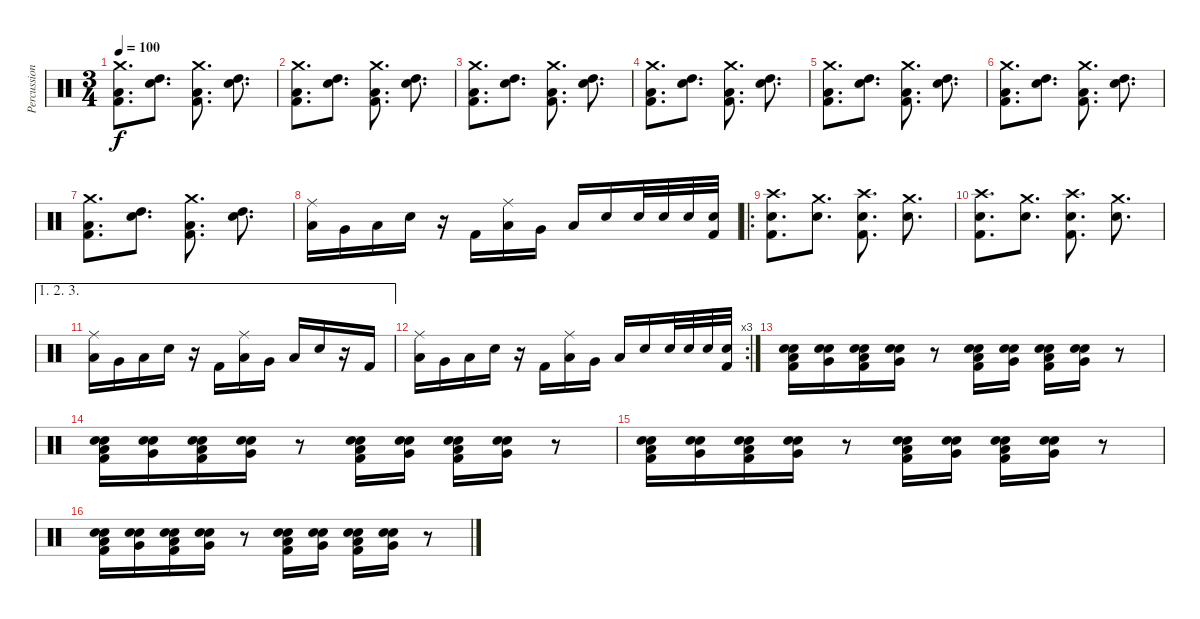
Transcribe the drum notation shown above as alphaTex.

\track ("Percussion" "Percussion") {instrument percussion}
\staff {score}
\articulation defaults
\ts (3 4)
\tempo 100
\clef neutral
\ks c
("Crash medium (hit)" "Low Floor Tom (hit)" "Kick (hit) 2").8{d dy f} ("Snare (hit) 2" "High Tom (hit)").8{d} ("Crash medium (hit)" "Low Floor Tom (hit)" "Kick (hit) 2").8{d} ("Snare (hit) 2" "High Tom (hit)").8{d} |
("Crash medium (hit)" "Low Floor Tom (hit)" "Kick (hit) 2").8{d} ("Snare (hit) 2" "High Tom (hit)").8{d} ("Crash medium (hit)" "Low Floor Tom (hit)" "Kick (hit) 2").8{d} ("Snare (hit) 2" "High Tom (hit)").8{d} |
("Crash medium (hit)" "Low Floor Tom (hit)" "Kick (hit) 2").8{d} ("Snare (hit) 2" "High Tom (hit)").8{d} ("Crash medium (hit)" "Low Floor Tom (hit)" "Kick (hit) 2").8{d} ("Snare (hit) 2" "High Tom (hit)").8{d} |
("Crash medium (hit)" "Low Floor Tom (hit)" "Kick (hit) 2").8{d} ("Snare (hit) 2" "High Tom (hit)").8{d} ("Crash medium (hit)" "Low Floor Tom (hit)" "Kick (hit) 2").8{d} ("Snare (hit) 2" "High Tom (hit)").8{d} |
("Crash medium (hit)" "Low Floor Tom (hit)" "Kick (hit) 2").8{d} ("Snare (hit) 2" "High Tom (hit)").8{d} ("Crash medium (hit)" "Low Floor Tom (hit)" "Kick (hit) 2").8{d} ("Snare (hit) 2" "High Tom (hit)").8{d} |
("Crash medium (hit)" "Low Floor Tom (hit)" "Kick (hit) 2").8{d} ("Snare (hit) 2" "High Tom (hit)").8{d} ("Crash medium (hit)" "Low Floor Tom (hit)" "Kick (hit) 2").8{d} ("Snare (hit) 2" "High Tom (hit)").8{d} |
("Crash medium (hit)" "Low Floor Tom (hit)" "Kick (hit) 2").8{d} ("Snare (hit) 2" "High Tom (hit)").8{d} ("Crash medium (hit)" "Low Floor Tom (hit)" "Kick (hit) 2").8{d} ("Snare (hit) 2" "High Tom (hit)").8{d} |
("Ride (middle)" "Low Floor Tom (hit)").16 "Very Low Tom (hit)".16 "Low Floor Tom (hit)".16 "Snare (hit) 2".16 r.16 "Kick (hit) 2".16 ("Ride (middle)" "Low Floor Tom (hit)").16 "Very Low Tom (hit)".16 "Low Floor Tom (hit)".16 "Snare (hit) 2".16 "Snare (hit) 2".32 "Snare (hit) 2".32 "Snare (hit) 2".32 ("Snare (hit) 2" "Kick (hit) 2").32 |
\ro
("Crash high (hit)" "Snare (hit) 2" "Kick (hit) 2").8{d} ("Crash medium (hit)" "Snare (hit) 2").8{d} ("Crash high (hit)" "Snare (hit) 2" "Kick (hit) 2").8{d} ("Crash medium (hit)" "Snare (hit) 2").8{d} |
("Crash high (hit)" "Snare (hit) 2" "Kick (hit) 2").8{d} ("Crash medium (hit)" "Snare (hit) 2").8{d} ("Crash high (hit)" "Snare (hit) 2" "Kick (hit) 2").8{d} ("Crash medium (hit)" "Snare (hit) 2").8{d} |
\ae (1 2 3)
("Ride (middle)" "Low Floor Tom (hit)").16 "Very Low Tom (hit)".16 "Low Floor Tom (hit)".16 "Snare (hit) 2".16 r.16 "Kick (hit) 2".16 ("Ride (middle)" "Low Floor Tom (hit)").16 "Very Low Tom (hit)".16 "Low Floor Tom (hit)".16 "Snare (hit) 2".16 r.16 "Kick (hit) 2".16 |
\rc 3
("Ride (middle)" "Low Floor Tom (hit)").16 "Very Low Tom (hit)".16 "Low Floor Tom (hit)".16 "Snare (hit) 2".16 r.16 "Kick (hit) 2".16 ("Ride (middle)" "Low Floor Tom (hit)").16 "Very Low Tom (hit)".16 "Low Floor Tom (hit)".16 "Snare (hit) 2".16 "Snare (hit) 2".32 "Snare (hit) 2".32 "Snare (hit) 2".32 ("Snare (hit) 2" "Kick (hit) 2").32 |
("Low Floor Tom (hit)" "Snare (hit) 2" "Electric Snare (hit)" "Kick (hit) 2").16 ("Very Low Tom (hit)" "Snare (hit) 2" "Electric Snare (hit)").16 ("Low Floor Tom (hit)" "Snare (hit) 2" "Electric Snare (hit)" "Kick (hit) 2").16 ("Very Low Tom (hit)" "Snare (hit) 2" "Electric Snare (hit)").16 r.8 ("Low Floor Tom (hit)" "Snare (hit) 2" "Electric Snare (hit)" "Kick (hit) 2").16 ("Very Low Tom (hit)" "Snare (hit) 2" "Electric Snare (hit)").16 ("Low Floor Tom (hit)" "Snare (hit) 2" "Electric Snare (hit)" "Kick (hit) 2").16 ("Very Low Tom (hit)" "Snare (hit) 2" "Electric Snare (hit)").16 r.8 |
("Low Floor Tom (hit)" "Snare (hit) 2" "Electric Snare (hit)" "Kick (hit) 2").16 ("Very Low Tom (hit)" "Snare (hit) 2" "Electric Snare (hit)").16 ("Low Floor Tom (hit)" "Snare (hit) 2" "Electric Snare (hit)" "Kick (hit) 2").16 ("Very Low Tom (hit)" "Snare (hit) 2" "Electric Snare (hit)").16 r.8 ("Low Floor Tom (hit)" "Snare (hit) 2" "Electric Snare (hit)" "Kick (hit) 2").16 ("Very Low Tom (hit)" "Snare (hit) 2" "Electric Snare (hit)").16 ("Low Floor Tom (hit)" "Snare (hit) 2" "Electric Snare (hit)" "Kick (hit) 2").16 ("Very Low Tom (hit)" "Snare (hit) 2" "Electric Snare (hit)").16 r.8 |
("Low Floor Tom (hit)" "Snare (hit) 2" "Electric Snare (hit)" "Kick (hit) 2").16 ("Very Low Tom (hit)" "Snare (hit) 2" "Electric Snare (hit)").16 ("Low Floor Tom (hit)" "Snare (hit) 2" "Electric Snare (hit)" "Kick (hit) 2").16 ("Very Low Tom (hit)" "Snare (hit) 2" "Electric Snare (hit)").16 r.8 ("Low Floor Tom (hit)" "Snare (hit) 2" "Electric Snare (hit)" "Kick (hit) 2").16 ("Very Low Tom (hit)" "Snare (hit) 2" "Electric Snare (hit)").16 ("Low Floor Tom (hit)" "Snare (hit) 2" "Electric Snare (hit)" "Kick (hit) 2").16 ("Very Low Tom (hit)" "Snare (hit) 2" "Electric Snare (hit)").16 r.8 |
("Low Floor Tom (hit)" "Snare (hit) 2" "Electric Snare (hit)" "Kick (hit) 2").16 ("Very Low Tom (hit)" "Snare (hit) 2" "Electric Snare (hit)").16 ("Low Floor Tom (hit)" "Snare (hit) 2" "Electric Snare (hit)" "Kick (hit) 2").16 ("Very Low Tom (hit)" "Snare (hit) 2" "Electric Snare (hit)").16 r.8 ("Low Floor Tom (hit)" "Snare (hit) 2" "Electric Snare (hit)" "Kick (hit) 2").16 ("Very Low Tom (hit)" "Snare (hit) 2" "Electric Snare (hit)").16 ("Low Floor Tom (hit)" "Snare (hit) 2" "Electric Snare (hit)" "Kick (hit) 2").16 ("Very Low Tom (hit)" "Snare (hit) 2" "Electric Snare (hit)").16 r.8
